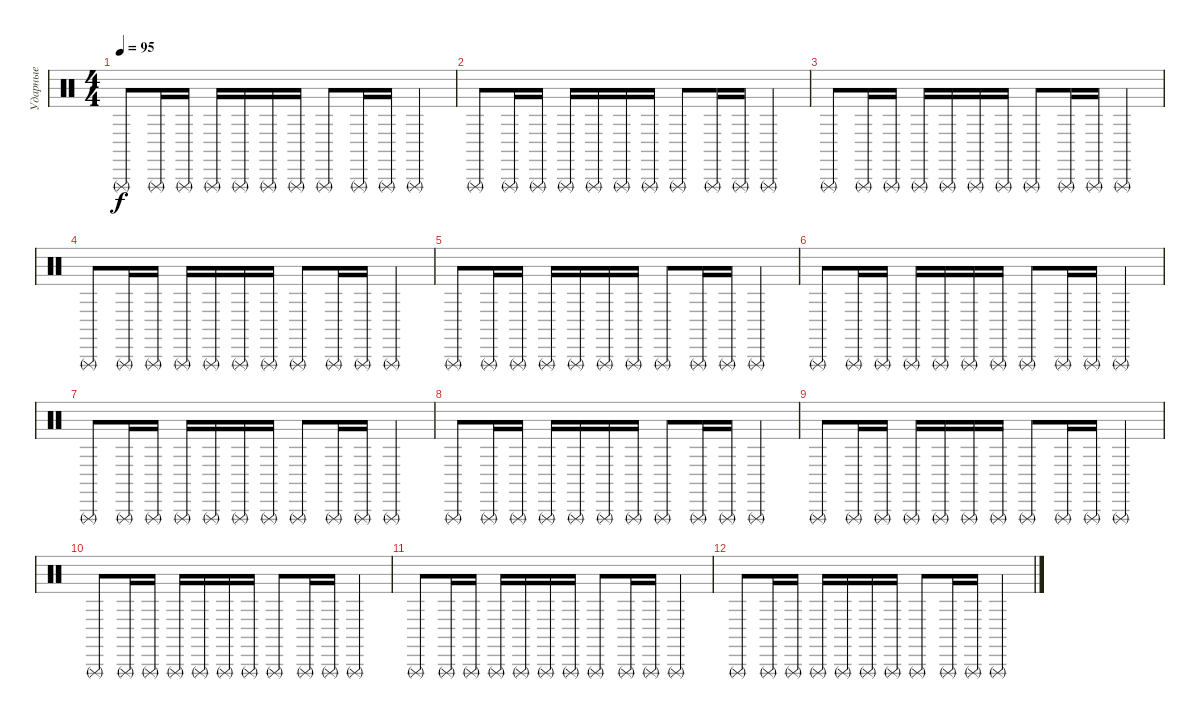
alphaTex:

\track ("Ударные" "Ударные") {instrument percussion}
\staff {score}
\articulation defaults
\ts (4 4)
\tempo 95
\clef neutral
\ks c "Triangle (rnute)".8{dy f} "Triangle (rnute)".16 "Triangle (rnute)".16 "Triangle (rnute)".16 "Triangle (rnute)".16 "Triangle (rnute)".16 "Triangle (rnute)".16 "Triangle (rnute)".8 "Triangle (rnute)".16 "Triangle (rnute)".16 "Triangle (rnute)".4
|
"Triangle (rnute)".8 "Triangle (rnute)".16 "Triangle (rnute)".16 "Triangle (rnute)".16 "Triangle (rnute)".16 "Triangle (rnute)".16 "Triangle (rnute)".16 "Triangle (rnute)".8 "Triangle (rnute)".16 "Triangle (rnute)".16 "Triangle (rnute)".4 |
"Triangle (rnute)".8 "Triangle (rnute)".16 "Triangle (rnute)".16 "Triangle (rnute)".16 "Triangle (rnute)".16 "Triangle (rnute)".16 "Triangle (rnute)".16 "Triangle (rnute)".8 "Triangle (rnute)".16 "Triangle (rnute)".16 "Triangle (rnute)".4 |
"Triangle (rnute)".8 "Triangle (rnute)".16 "Triangle (rnute)".16 "Triangle (rnute)".16 "Triangle (rnute)".16 "Triangle (rnute)".16 "Triangle (rnute)".16 "Triangle (rnute)".8 "Triangle (rnute)".16 "Triangle (rnute)".16 "Triangle (rnute)".4 |
"Triangle (rnute)".8 "Triangle (rnute)".16 "Triangle (rnute)".16 "Triangle (rnute)".16 "Triangle (rnute)".16 "Triangle (rnute)".16 "Triangle (rnute)".16 "Triangle (rnute)".8 "Triangle (rnute)".16 "Triangle (rnute)".16 "Triangle (rnute)".4 |
"Triangle (rnute)".8 "Triangle (rnute)".16 "Triangle (rnute)".16 "Triangle (rnute)".16 "Triangle (rnute)".16 "Triangle (rnute)".16 "Triangle (rnute)".16 "Triangle (rnute)".8 "Triangle (rnute)".16 "Triangle (rnute)".16 "Triangle (rnute)".4 |
"Triangle (rnute)".8 "Triangle (rnute)".16 "Triangle (rnute)".16 "Triangle (rnute)".16 "Triangle (rnute)".16 "Triangle (rnute)".16 "Triangle (rnute)".16 "Triangle (rnute)".8 "Triangle (rnute)".16 "Triangle (rnute)".16 "Triangle (rnute)".4 |
"Triangle (rnute)".8 "Triangle (rnute)".16 "Triangle (rnute)".16 "Triangle (rnute)".16 "Triangle (rnute)".16 "Triangle (rnute)".16 "Triangle (rnute)".16 "Triangle (rnute)".8 "Triangle (rnute)".16 "Triangle (rnute)".16 "Triangle (rnute)".4 |
"Triangle (rnute)".8 "Triangle (rnute)".16 "Triangle (rnute)".16 "Triangle (rnute)".16 "Triangle (rnute)".16 "Triangle (rnute)".16 "Triangle (rnute)".16 "Triangle (rnute)".8 "Triangle (rnute)".16 "Triangle (rnute)".16 "Triangle (rnute)".4 |
"Triangle (rnute)".8 "Triangle (rnute)".16 "Triangle (rnute)".16 "Triangle (rnute)".16 "Triangle (rnute)".16 "Triangle (rnute)".16 "Triangle (rnute)".16 "Triangle (rnute)".8 "Triangle (rnute)".16 "Triangle (rnute)".16 "Triangle (rnute)".4 |
"Triangle (rnute)".8 "Triangle (rnute)".16 "Triangle (rnute)".16 "Triangle (rnute)".16 "Triangle (rnute)".16 "Triangle (rnute)".16 "Triangle (rnute)".16 "Triangle (rnute)".8 "Triangle (rnute)".16 "Triangle (rnute)".16 "Triangle (rnute)".4 |
"Triangle (rnute)".8 "Triangle (rnute)".16 "Triangle (rnute)".16 "Triangle (rnute)".16 "Triangle (rnute)".16 "Triangle (rnute)".16 "Triangle (rnute)".16 "Triangle (rnute)".8 "Triangle (rnute)".16 "Triangle (rnute)".16 "Triangle (rnute)".4
